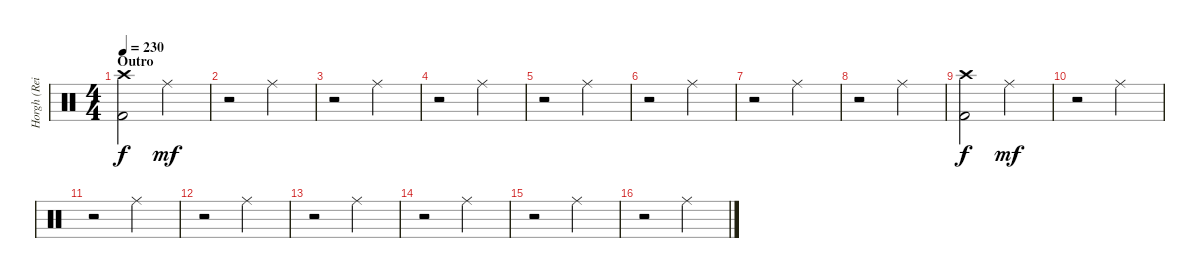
\track ("Horgh (Reidar Horghagen)" "Horgh (Rei") {instrument percussion}
\staff {score}
\articulation defaults
\ts (4 4)
\section ("" "Outro")
\tempo 230
\clef neutral
\ks c
("Crash high (hit)" "Kick (hit) 2").2{dy f} "Ride (middle)".2{dy mf} |
r.2 "Ride (middle)".2 |
r.2 "Ride (middle)".2 |
r.2 "Ride (middle)".2 |
r.2 "Ride (middle)".2 |
r.2 "Ride (middle)".2 |
r.2 "Ride (middle)".2 |
r.2 "Ride (middle)".2 |
("Crash high (hit)" "Kick (hit) 2").2{dy f} "Ride (middle)".2{dy mf} |
r.2 "Ride (middle)".2 |
r.2 "Ride (middle)".2 |
r.2 "Ride (middle)".2 |
r.2 "Ride (middle)".2 |
r.2 "Ride (middle)".2 |
r.2 "Ride (middle)".2 |
r.2 "Ride (middle)".2
